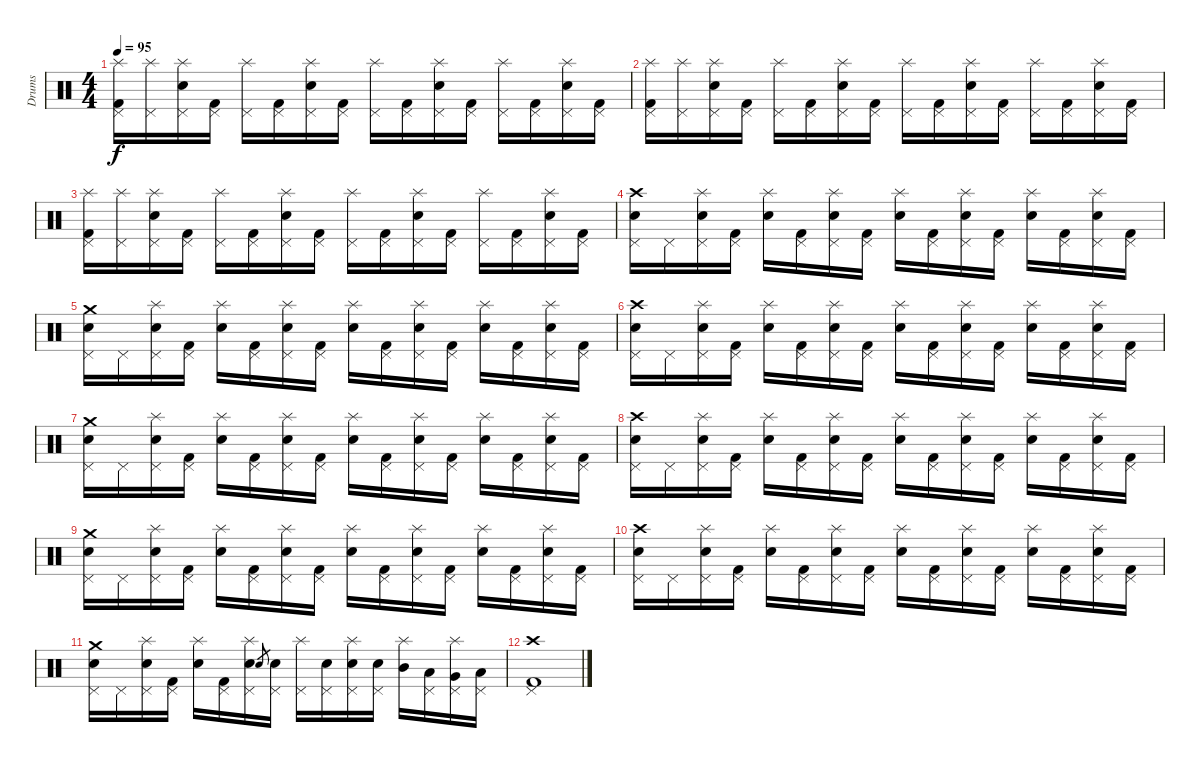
\track ("Drums" "Drums") {instrument percussion}
\staff {score}
\articulation defaults
\ts (4 4)
\tempo 95
\clef neutral
\ks c
("Kick (hit) 2" "Pedal Hi-Hat (hit)" "Splash (hit)").16{dy f} ("Pedal Hi-Hat (hit)" "Splash (hit)").16 ("Snare (hit) 2" "Pedal Hi-Hat (hit)" "Splash (hit)").16 ("Kick (hit) 2" "Pedal Hi-Hat (hit)").16 ("Pedal Hi-Hat (hit)" "Splash (hit)").16 ("Kick (hit) 2" "Pedal Hi-Hat (hit)").16 ("Snare (hit) 2" "Pedal Hi-Hat (hit)" "Splash (hit)").16 ("Kick (hit) 2" "Pedal Hi-Hat (hit)").16 ("Pedal Hi-Hat (hit)" "Splash (hit)").16 ("Kick (hit) 2" "Pedal Hi-Hat (hit)").16 ("Snare (hit) 2" "Pedal Hi-Hat (hit)" "Splash (hit)").16 ("Kick (hit) 2" "Pedal Hi-Hat (hit)").16 ("Pedal Hi-Hat (hit)" "Splash (hit)").16 ("Kick (hit) 2" "Pedal Hi-Hat (hit)").16 ("Snare (hit) 2" "Pedal Hi-Hat (hit)" "Splash (hit)").16 ("Kick (hit) 2" "Pedal Hi-Hat (hit)").16 |
("Kick (hit) 2" "Pedal Hi-Hat (hit)" "Splash (hit)").16 ("Pedal Hi-Hat (hit)" "Splash (hit)").16 ("Snare (hit) 2" "Pedal Hi-Hat (hit)" "Splash (hit)").16 ("Kick (hit) 2" "Pedal Hi-Hat (hit)").16 ("Pedal Hi-Hat (hit)" "Splash (hit)").16 ("Kick (hit) 2" "Pedal Hi-Hat (hit)").16 ("Snare (hit) 2" "Pedal Hi-Hat (hit)" "Splash (hit)").16 ("Kick (hit) 2" "Pedal Hi-Hat (hit)").16 ("Pedal Hi-Hat (hit)" "Splash (hit)").16 ("Kick (hit) 2" "Pedal Hi-Hat (hit)").16 ("Snare (hit) 2" "Pedal Hi-Hat (hit)" "Splash (hit)").16 ("Kick (hit) 2" "Pedal Hi-Hat (hit)").16 ("Pedal Hi-Hat (hit)" "Splash (hit)").16 ("Kick (hit) 2" "Pedal Hi-Hat (hit)").16 ("Snare (hit) 2" "Pedal Hi-Hat (hit)" "Splash (hit)").16 ("Kick (hit) 2" "Pedal Hi-Hat (hit)").16 |
("Kick (hit) 2" "Pedal Hi-Hat (hit)" "Splash (hit)").16 ("Pedal Hi-Hat (hit)" "Splash (hit)").16 ("Snare (hit) 2" "Pedal Hi-Hat (hit)" "Splash (hit)").16 ("Kick (hit) 2" "Pedal Hi-Hat (hit)").16 ("Pedal Hi-Hat (hit)" "Splash (hit)").16 ("Kick (hit) 2" "Pedal Hi-Hat (hit)").16 ("Snare (hit) 2" "Pedal Hi-Hat (hit)" "Splash (hit)").16 ("Kick (hit) 2" "Pedal Hi-Hat (hit)").16 ("Pedal Hi-Hat (hit)" "Splash (hit)").16 ("Kick (hit) 2" "Pedal Hi-Hat (hit)").16 ("Snare (hit) 2" "Pedal Hi-Hat (hit)" "Splash (hit)").16 ("Kick (hit) 2" "Pedal Hi-Hat (hit)").16 ("Pedal Hi-Hat (hit)" "Splash (hit)").16 ("Kick (hit) 2" "Pedal Hi-Hat (hit)").16 ("Snare (hit) 2" "Pedal Hi-Hat (hit)" "Splash (hit)").16 ("Kick (hit) 2" "Pedal Hi-Hat (hit)").16 |
("Snare (hit) 2" "Pedal Hi-Hat (hit)" "Crash high (hit)").16 "Pedal Hi-Hat (hit)".16 ("Snare (hit) 2" "Pedal Hi-Hat (hit)" "Splash (hit)").16 ("Kick (hit) 2" "Pedal Hi-Hat (hit)").16 ("Snare (hit) 2" "Splash (hit)").16 ("Kick (hit) 2" "Pedal Hi-Hat (hit)").16 ("Snare (hit) 2" "Pedal Hi-Hat (hit)" "Splash (hit)").16 ("Kick (hit) 2" "Pedal Hi-Hat (hit)").16 ("Snare (hit) 2" "Splash (hit)").16 ("Kick (hit) 2" "Pedal Hi-Hat (hit)").16 ("Snare (hit) 2" "Pedal Hi-Hat (hit)" "Splash (hit)").16 ("Kick (hit) 2" "Pedal Hi-Hat (hit)").16 ("Snare (hit) 2" "Splash (hit)").16 ("Kick (hit) 2" "Pedal Hi-Hat (hit)").16 ("Snare (hit) 2" "Pedal Hi-Hat (hit)" "Splash (hit)").16 ("Kick (hit) 2" "Pedal Hi-Hat (hit)").16 |
("Snare (hit) 2" "Pedal Hi-Hat (hit)" "Crash medium (hit)").16 "Pedal Hi-Hat (hit)".16 ("Snare (hit) 2" "Pedal Hi-Hat (hit)" "Splash (hit)").16 ("Kick (hit) 2" "Pedal Hi-Hat (hit)").16 ("Snare (hit) 2" "Splash (hit)").16 ("Kick (hit) 2" "Pedal Hi-Hat (hit)").16 ("Snare (hit) 2" "Pedal Hi-Hat (hit)" "Splash (hit)").16 ("Kick (hit) 2" "Pedal Hi-Hat (hit)").16 ("Snare (hit) 2" "Splash (hit)").16 ("Kick (hit) 2" "Pedal Hi-Hat (hit)").16 ("Snare (hit) 2" "Pedal Hi-Hat (hit)" "Splash (hit)").16 ("Kick (hit) 2" "Pedal Hi-Hat (hit)").16 ("Snare (hit) 2" "Splash (hit)").16 ("Kick (hit) 2" "Pedal Hi-Hat (hit)").16 ("Snare (hit) 2" "Pedal Hi-Hat (hit)" "Splash (hit)").16 ("Kick (hit) 2" "Pedal Hi-Hat (hit)").16 |
("Snare (hit) 2" "Pedal Hi-Hat (hit)" "Crash high (hit)").16 "Pedal Hi-Hat (hit)".16 ("Snare (hit) 2" "Pedal Hi-Hat (hit)" "Splash (hit)").16 ("Kick (hit) 2" "Pedal Hi-Hat (hit)").16 ("Snare (hit) 2" "Splash (hit)").16 ("Kick (hit) 2" "Pedal Hi-Hat (hit)").16 ("Snare (hit) 2" "Pedal Hi-Hat (hit)" "Splash (hit)").16 ("Kick (hit) 2" "Pedal Hi-Hat (hit)").16 ("Snare (hit) 2" "Splash (hit)").16 ("Kick (hit) 2" "Pedal Hi-Hat (hit)").16 ("Snare (hit) 2" "Pedal Hi-Hat (hit)" "Splash (hit)").16 ("Kick (hit) 2" "Pedal Hi-Hat (hit)").16 ("Snare (hit) 2" "Splash (hit)").16 ("Kick (hit) 2" "Pedal Hi-Hat (hit)").16 ("Snare (hit) 2" "Pedal Hi-Hat (hit)" "Splash (hit)").16 ("Kick (hit) 2" "Pedal Hi-Hat (hit)").16 |
("Snare (hit) 2" "Pedal Hi-Hat (hit)" "Crash medium (hit)").16 "Pedal Hi-Hat (hit)".16 ("Snare (hit) 2" "Pedal Hi-Hat (hit)" "Splash (hit)").16 ("Kick (hit) 2" "Pedal Hi-Hat (hit)").16 ("Snare (hit) 2" "Splash (hit)").16 ("Kick (hit) 2" "Pedal Hi-Hat (hit)").16 ("Snare (hit) 2" "Pedal Hi-Hat (hit)" "Splash (hit)").16 ("Kick (hit) 2" "Pedal Hi-Hat (hit)").16 ("Snare (hit) 2" "Splash (hit)").16 ("Kick (hit) 2" "Pedal Hi-Hat (hit)").16 ("Snare (hit) 2" "Pedal Hi-Hat (hit)" "Splash (hit)").16 ("Kick (hit) 2" "Pedal Hi-Hat (hit)").16 ("Snare (hit) 2" "Splash (hit)").16 ("Kick (hit) 2" "Pedal Hi-Hat (hit)").16 ("Snare (hit) 2" "Pedal Hi-Hat (hit)" "Splash (hit)").16 ("Kick (hit) 2" "Pedal Hi-Hat (hit)").16 |
("Snare (hit) 2" "Pedal Hi-Hat (hit)" "Crash high (hit)").16 "Pedal Hi-Hat (hit)".16 ("Snare (hit) 2" "Pedal Hi-Hat (hit)" "Splash (hit)").16 ("Kick (hit) 2" "Pedal Hi-Hat (hit)").16 ("Snare (hit) 2" "Splash (hit)").16 ("Kick (hit) 2" "Pedal Hi-Hat (hit)").16 ("Snare (hit) 2" "Pedal Hi-Hat (hit)" "Splash (hit)").16 ("Kick (hit) 2" "Pedal Hi-Hat (hit)").16 ("Snare (hit) 2" "Splash (hit)").16 ("Kick (hit) 2" "Pedal Hi-Hat (hit)").16 ("Snare (hit) 2" "Pedal Hi-Hat (hit)" "Splash (hit)").16 ("Kick (hit) 2" "Pedal Hi-Hat (hit)").16 ("Snare (hit) 2" "Splash (hit)").16 ("Kick (hit) 2" "Pedal Hi-Hat (hit)").16 ("Snare (hit) 2" "Pedal Hi-Hat (hit)" "Splash (hit)").16 ("Kick (hit) 2" "Pedal Hi-Hat (hit)").16 |
("Snare (hit) 2" "Pedal Hi-Hat (hit)" "Crash medium (hit)").16 "Pedal Hi-Hat (hit)".16 ("Snare (hit) 2" "Pedal Hi-Hat (hit)" "Splash (hit)").16 ("Kick (hit) 2" "Pedal Hi-Hat (hit)").16 ("Snare (hit) 2" "Splash (hit)").16 ("Kick (hit) 2" "Pedal Hi-Hat (hit)").16 ("Snare (hit) 2" "Pedal Hi-Hat (hit)" "Splash (hit)").16 ("Kick (hit) 2" "Pedal Hi-Hat (hit)").16 ("Snare (hit) 2" "Splash (hit)").16 ("Kick (hit) 2" "Pedal Hi-Hat (hit)").16 ("Snare (hit) 2" "Pedal Hi-Hat (hit)" "Splash (hit)").16 ("Kick (hit) 2" "Pedal Hi-Hat (hit)").16 ("Snare (hit) 2" "Splash (hit)").16 ("Kick (hit) 2" "Pedal Hi-Hat (hit)").16 ("Snare (hit) 2" "Pedal Hi-Hat (hit)" "Splash (hit)").16 ("Kick (hit) 2" "Pedal Hi-Hat (hit)").16 |
("Snare (hit) 2" "Pedal Hi-Hat (hit)" "Crash high (hit)").16 "Pedal Hi-Hat (hit)".16 ("Snare (hit) 2" "Pedal Hi-Hat (hit)" "Splash (hit)").16 ("Kick (hit) 2" "Pedal Hi-Hat (hit)").16 ("Snare (hit) 2" "Splash (hit)").16 ("Kick (hit) 2" "Pedal Hi-Hat (hit)").16 ("Snare (hit) 2" "Pedal Hi-Hat (hit)" "Splash (hit)").16 ("Kick (hit) 2" "Pedal Hi-Hat (hit)").16 ("Snare (hit) 2" "Splash (hit)").16 ("Kick (hit) 2" "Pedal Hi-Hat (hit)").16 ("Snare (hit) 2" "Pedal Hi-Hat (hit)" "Splash (hit)").16 ("Kick (hit) 2" "Pedal Hi-Hat (hit)").16 ("Snare (hit) 2" "Splash (hit)").16 ("Kick (hit) 2" "Pedal Hi-Hat (hit)").16 ("Snare (hit) 2" "Pedal Hi-Hat (hit)" "Splash (hit)").16 ("Kick (hit) 2" "Pedal Hi-Hat (hit)").16 |
("Snare (hit) 2" "Pedal Hi-Hat (hit)" "Crash medium (hit)").16 "Pedal Hi-Hat (hit)".16 ("Snare (hit) 2" "Pedal Hi-Hat (hit)" "Splash (hit)").16 ("Kick (hit) 2" "Pedal Hi-Hat (hit)").16 ("Snare (hit) 2" "Splash (hit)").16 ("Kick (hit) 2" "Pedal Hi-Hat (hit)").16 ("Snare (hit) 2" "Pedal Hi-Hat (hit)" "Splash (hit)").16 "Snare (hit) 2".8{gr} ("Snare (hit) 2" "Pedal Hi-Hat (hit)").16 ("Pedal Hi-Hat (hit)" "Splash (hit)").16 ("Snare (hit) 2" "Pedal Hi-Hat (hit)").16 ("Snare (hit) 2" "Pedal Hi-Hat (hit)" "Splash (hit)").16 ("Snare (hit) 2" "Pedal Hi-Hat (hit)").16 ("Mid Tom (hit)" "Splash (hit)").16 ("Low Tom (hit)" "Pedal Hi-Hat (hit)").16 ("Very Low Tom (hit)" "Pedal Hi-Hat (hit)" "Splash (hit)").16 ("Low Floor Tom (hit)" "Pedal Hi-Hat (hit)").16 |
("Kick (hit) 2" "Pedal Hi-Hat (hit)" "Crash high (hit)").1
